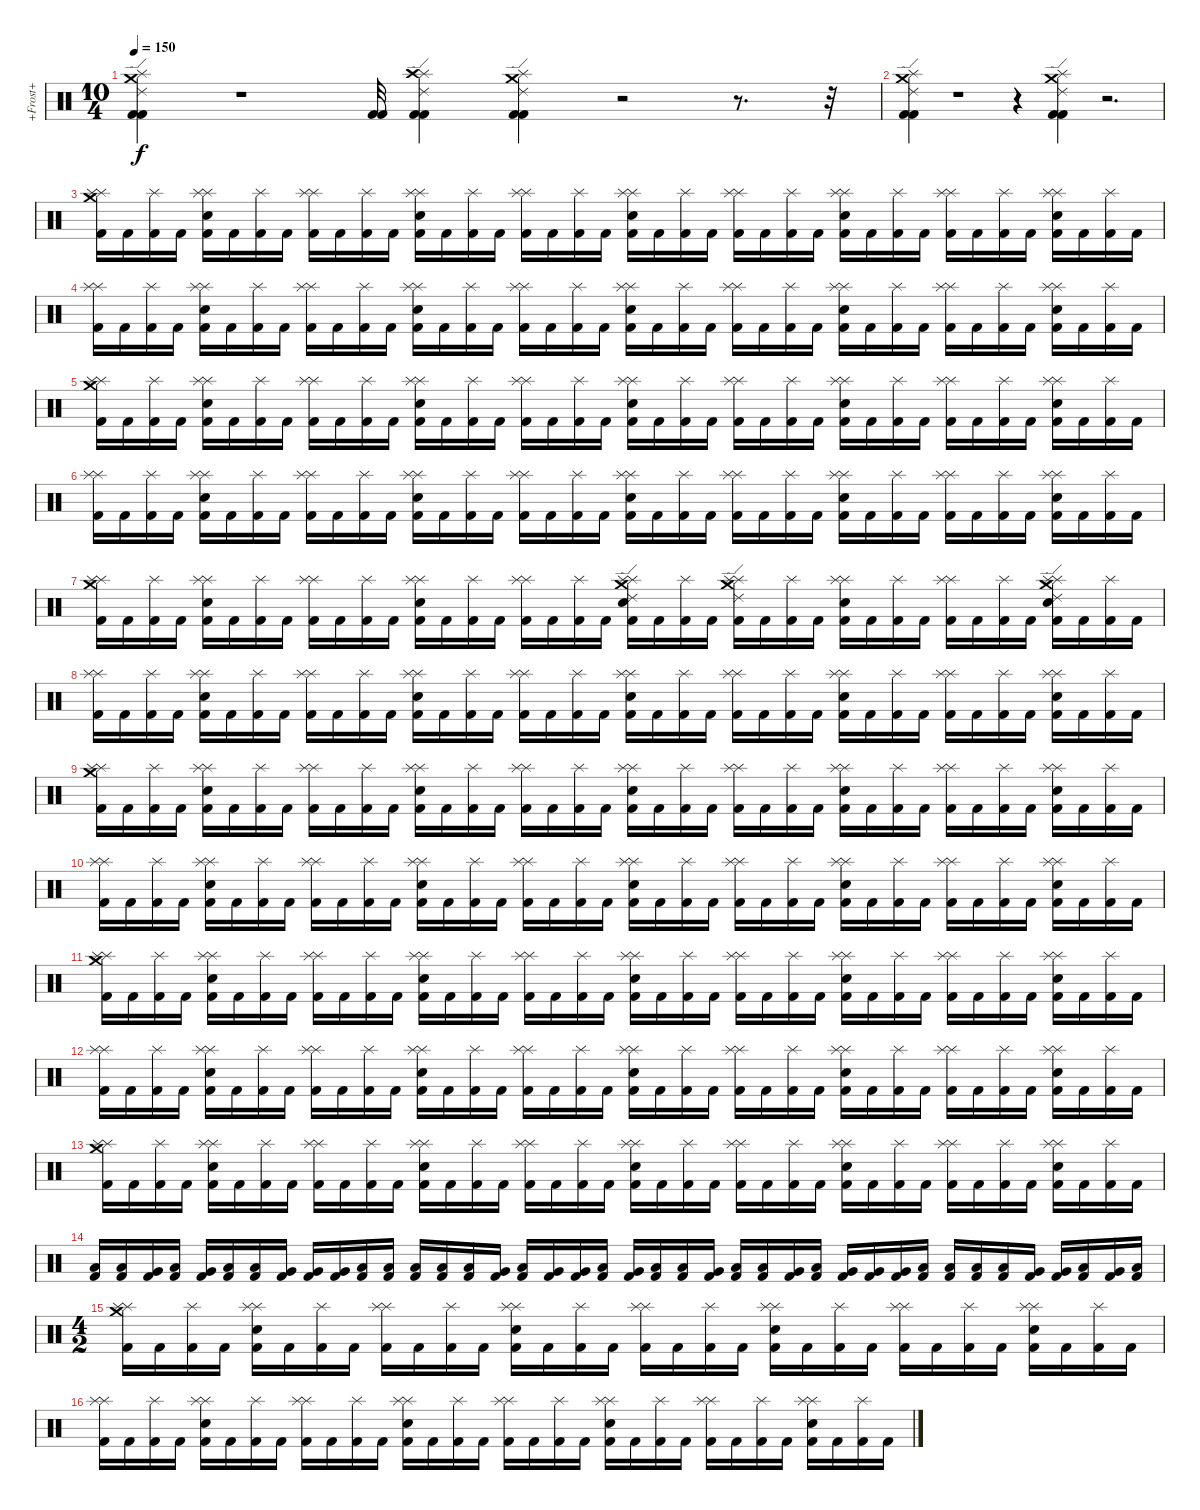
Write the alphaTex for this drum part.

\track ("+Frost+" "+Frost+") {instrument percussion}
\staff {score}
\articulation defaults
\ts (10 4)
\tempo 150
\clef neutral
\ks c
("Kick (hit) 2" "Kick (hit) 2" "Ride (edge) 2" "Crash medium (hit)" "Splash (hit)").4{dy f} r.1 ("Kick (hit) 2" "Kick (hit) 2").32 ("Kick (hit) 2" "Kick (hit) 2" "Splash (hit)" "Crash high (hit)" "Ride (edge) 2").4 ("Kick (hit) 2" "Kick (hit) 2" "Splash (hit)" "Crash medium (hit)" "Ride (edge) 2").4 r.2 r.8{d} r.32 |
("Kick (hit) 2" "Kick (hit) 2" "Ride (edge) 2" "Crash medium (hit)" "Splash (hit)").4 r.1 r.4 ("Kick (hit) 2" "Kick (hit) 2" "Ride (edge) 2" "Crash medium (hit)" "Splash (hit)").4 r.2{d} |
("Kick (hit) 2" "Splash (hit)" "Splash (hit)" "Crash medium (hit)").16 "Kick (hit) 2".16 ("Kick (hit) 2" "Splash (hit)").16 "Kick (hit) 2".16 ("Kick (hit) 2" "Splash (hit)" "Splash (hit)" "Electric Snare (hit)").16 "Kick (hit) 2".16 ("Kick (hit) 2" "Splash (hit)").16 "Kick (hit) 2".16 ("Kick (hit) 2" "Splash (hit)" "Splash (hit)").16 "Kick (hit) 2".16 ("Kick (hit) 2" "Splash (hit)").16 "Kick (hit) 2".16 ("Kick (hit) 2" "Splash (hit)" "Splash (hit)" "Electric Snare (hit)").16 "Kick (hit) 2".16 ("Kick (hit) 2" "Splash (hit)").16 "Kick (hit) 2".16 ("Kick (hit) 2" "Splash (hit)" "Splash (hit)").16 "Kick (hit) 2".16 ("Kick (hit) 2" "Splash (hit)").16 "Kick (hit) 2".16 ("Kick (hit) 2" "Splash (hit)" "Splash (hit)" "Electric Snare (hit)").16 "Kick (hit) 2".16 ("Kick (hit) 2" "Splash (hit)").16 "Kick (hit) 2".16 ("Kick (hit) 2" "Splash (hit)" "Splash (hit)").16 "Kick (hit) 2".16 ("Kick (hit) 2" "Splash (hit)").16 "Kick (hit) 2".16 ("Kick (hit) 2" "Splash (hit)" "Splash (hit)" "Electric Snare (hit)").16 "Kick (hit) 2".16 ("Kick (hit) 2" "Splash (hit)").16 "Kick (hit) 2".16 ("Kick (hit) 2" "Splash (hit)" "Splash (hit)").16 "Kick (hit) 2".16 ("Kick (hit) 2" "Splash (hit)").16 "Kick (hit) 2".16 ("Kick (hit) 2" "Splash (hit)" "Splash (hit)" "Electric Snare (hit)").16 "Kick (hit) 2".16 ("Kick (hit) 2" "Splash (hit)").16 "Kick (hit) 2".16 |
("Kick (hit) 2" "Splash (hit)" "Splash (hit)").16 "Kick (hit) 2".16 ("Kick (hit) 2" "Splash (hit)").16 "Kick (hit) 2".16 ("Kick (hit) 2" "Splash (hit)" "Splash (hit)" "Electric Snare (hit)").16 "Kick (hit) 2".16 ("Kick (hit) 2" "Splash (hit)").16 "Kick (hit) 2".16 ("Kick (hit) 2" "Splash (hit)" "Splash (hit)").16 "Kick (hit) 2".16 ("Kick (hit) 2" "Splash (hit)").16 "Kick (hit) 2".16 ("Kick (hit) 2" "Splash (hit)" "Splash (hit)" "Electric Snare (hit)").16 "Kick (hit) 2".16 ("Kick (hit) 2" "Splash (hit)").16 "Kick (hit) 2".16 ("Kick (hit) 2" "Splash (hit)" "Splash (hit)").16 "Kick (hit) 2".16 ("Kick (hit) 2" "Splash (hit)").16 "Kick (hit) 2".16 ("Kick (hit) 2" "Splash (hit)" "Splash (hit)" "Electric Snare (hit)").16 "Kick (hit) 2".16 ("Kick (hit) 2" "Splash (hit)").16 "Kick (hit) 2".16 ("Kick (hit) 2" "Splash (hit)" "Splash (hit)").16 "Kick (hit) 2".16 ("Kick (hit) 2" "Splash (hit)").16 "Kick (hit) 2".16 ("Kick (hit) 2" "Splash (hit)" "Splash (hit)" "Electric Snare (hit)").16 "Kick (hit) 2".16 ("Kick (hit) 2" "Splash (hit)").16 "Kick (hit) 2".16 ("Kick (hit) 2" "Splash (hit)" "Splash (hit)").16 "Kick (hit) 2".16 ("Kick (hit) 2" "Splash (hit)").16 "Kick (hit) 2".16 ("Kick (hit) 2" "Splash (hit)" "Splash (hit)" "Electric Snare (hit)").16 "Kick (hit) 2".16 ("Kick (hit) 2" "Splash (hit)").16 "Kick (hit) 2".16 |
("Kick (hit) 2" "Splash (hit)" "Splash (hit)" "Crash medium (hit)").16 "Kick (hit) 2".16 ("Kick (hit) 2" "Splash (hit)").16 "Kick (hit) 2".16 ("Kick (hit) 2" "Splash (hit)" "Splash (hit)" "Electric Snare (hit)").16 "Kick (hit) 2".16 ("Kick (hit) 2" "Splash (hit)").16 "Kick (hit) 2".16 ("Kick (hit) 2" "Splash (hit)" "Splash (hit)").16 "Kick (hit) 2".16 ("Kick (hit) 2" "Splash (hit)").16 "Kick (hit) 2".16 ("Kick (hit) 2" "Splash (hit)" "Splash (hit)" "Electric Snare (hit)").16 "Kick (hit) 2".16 ("Kick (hit) 2" "Splash (hit)").16 "Kick (hit) 2".16 ("Kick (hit) 2" "Splash (hit)" "Splash (hit)").16 "Kick (hit) 2".16 ("Kick (hit) 2" "Splash (hit)").16 "Kick (hit) 2".16 ("Kick (hit) 2" "Splash (hit)" "Splash (hit)" "Electric Snare (hit)").16 "Kick (hit) 2".16 ("Kick (hit) 2" "Splash (hit)").16 "Kick (hit) 2".16 ("Kick (hit) 2" "Splash (hit)" "Splash (hit)").16 "Kick (hit) 2".16 ("Kick (hit) 2" "Splash (hit)").16 "Kick (hit) 2".16 ("Kick (hit) 2" "Splash (hit)" "Splash (hit)" "Electric Snare (hit)").16 "Kick (hit) 2".16 ("Kick (hit) 2" "Splash (hit)").16 "Kick (hit) 2".16 ("Kick (hit) 2" "Splash (hit)" "Splash (hit)").16 "Kick (hit) 2".16 ("Kick (hit) 2" "Splash (hit)").16 "Kick (hit) 2".16 ("Kick (hit) 2" "Splash (hit)" "Splash (hit)" "Electric Snare (hit)").16 "Kick (hit) 2".16 ("Kick (hit) 2" "Splash (hit)").16 "Kick (hit) 2".16 |
("Kick (hit) 2" "Splash (hit)" "Splash (hit)").16 "Kick (hit) 2".16 ("Kick (hit) 2" "Splash (hit)").16 "Kick (hit) 2".16 ("Kick (hit) 2" "Splash (hit)" "Splash (hit)" "Electric Snare (hit)").16 "Kick (hit) 2".16 ("Kick (hit) 2" "Splash (hit)").16 "Kick (hit) 2".16 ("Kick (hit) 2" "Splash (hit)" "Splash (hit)").16 "Kick (hit) 2".16 ("Kick (hit) 2" "Splash (hit)").16 "Kick (hit) 2".16 ("Kick (hit) 2" "Splash (hit)" "Splash (hit)" "Electric Snare (hit)").16 "Kick (hit) 2".16 ("Kick (hit) 2" "Splash (hit)").16 "Kick (hit) 2".16 ("Kick (hit) 2" "Splash (hit)" "Splash (hit)").16 "Kick (hit) 2".16 ("Kick (hit) 2" "Splash (hit)").16 "Kick (hit) 2".16 ("Kick (hit) 2" "Splash (hit)" "Splash (hit)" "Electric Snare (hit)").16 "Kick (hit) 2".16 ("Kick (hit) 2" "Splash (hit)").16 "Kick (hit) 2".16 ("Kick (hit) 2" "Splash (hit)" "Splash (hit)").16 "Kick (hit) 2".16 ("Kick (hit) 2" "Splash (hit)").16 "Kick (hit) 2".16 ("Kick (hit) 2" "Splash (hit)" "Splash (hit)" "Electric Snare (hit)").16 "Kick (hit) 2".16 ("Kick (hit) 2" "Splash (hit)").16 "Kick (hit) 2".16 ("Kick (hit) 2" "Splash (hit)" "Splash (hit)").16 "Kick (hit) 2".16 ("Kick (hit) 2" "Splash (hit)").16 "Kick (hit) 2".16 ("Kick (hit) 2" "Splash (hit)" "Splash (hit)" "Electric Snare (hit)").16 "Kick (hit) 2".16 ("Kick (hit) 2" "Splash (hit)").16 "Kick (hit) 2".16 |
("Kick (hit) 2" "Splash (hit)" "Splash (hit)" "Crash medium (hit)").16 "Kick (hit) 2".16 ("Kick (hit) 2" "Splash (hit)").16 "Kick (hit) 2".16 ("Kick (hit) 2" "Splash (hit)" "Splash (hit)" "Electric Snare (hit)").16 "Kick (hit) 2".16 ("Kick (hit) 2" "Splash (hit)").16 "Kick (hit) 2".16 ("Kick (hit) 2" "Splash (hit)" "Splash (hit)").16 "Kick (hit) 2".16 ("Kick (hit) 2" "Splash (hit)").16 "Kick (hit) 2".16 ("Kick (hit) 2" "Splash (hit)" "Splash (hit)" "Electric Snare (hit)").16 "Kick (hit) 2".16 ("Kick (hit) 2" "Splash (hit)").16 "Kick (hit) 2".16 ("Kick (hit) 2" "Splash (hit)" "Splash (hit)").16 "Kick (hit) 2".16 ("Kick (hit) 2" "Splash (hit)").16 "Kick (hit) 2".16 ("Kick (hit) 2" "Splash (hit)" "Splash (hit)" "Crash medium (hit)" "Electric Snare (hit)" "Ride (edge) 2").16 "Kick (hit) 2".16 ("Kick (hit) 2" "Splash (hit)").16 "Kick (hit) 2".16 ("Kick (hit) 2" "Splash (hit)" "Splash (hit)" "Crash medium (hit)" "Ride (edge) 2").16 "Kick (hit) 2".16 ("Kick (hit) 2" "Splash (hit)").16 "Kick (hit) 2".16 ("Kick (hit) 2" "Splash (hit)" "Splash (hit)" "Electric Snare (hit)").16 "Kick (hit) 2".16 ("Kick (hit) 2" "Splash (hit)").16 "Kick (hit) 2".16 ("Kick (hit) 2" "Splash (hit)" "Splash (hit)").16 "Kick (hit) 2".16 ("Kick (hit) 2" "Splash (hit)").16 "Kick (hit) 2".16 ("Kick (hit) 2" "Splash (hit)" "Splash (hit)" "Crash medium (hit)" "Electric Snare (hit)" "Ride (edge) 2").16 "Kick (hit) 2".16 ("Kick (hit) 2" "Splash (hit)").16 "Kick (hit) 2".16 |
("Kick (hit) 2" "Splash (hit)" "Splash (hit)").16 "Kick (hit) 2".16 ("Kick (hit) 2" "Splash (hit)").16 "Kick (hit) 2".16 ("Kick (hit) 2" "Splash (hit)" "Splash (hit)" "Electric Snare (hit)").16 "Kick (hit) 2".16 ("Kick (hit) 2" "Splash (hit)").16 "Kick (hit) 2".16 ("Kick (hit) 2" "Splash (hit)" "Splash (hit)").16 "Kick (hit) 2".16 ("Kick (hit) 2" "Splash (hit)").16 "Kick (hit) 2".16 ("Kick (hit) 2" "Splash (hit)" "Splash (hit)" "Electric Snare (hit)").16 "Kick (hit) 2".16 ("Kick (hit) 2" "Splash (hit)").16 "Kick (hit) 2".16 ("Kick (hit) 2" "Splash (hit)" "Splash (hit)").16 "Kick (hit) 2".16 ("Kick (hit) 2" "Splash (hit)").16 "Kick (hit) 2".16 ("Kick (hit) 2" "Splash (hit)" "Splash (hit)" "Electric Snare (hit)").16 "Kick (hit) 2".16 ("Kick (hit) 2" "Splash (hit)").16 "Kick (hit) 2".16 ("Kick (hit) 2" "Splash (hit)" "Splash (hit)").16 "Kick (hit) 2".16 ("Kick (hit) 2" "Splash (hit)").16 "Kick (hit) 2".16 ("Kick (hit) 2" "Splash (hit)" "Splash (hit)" "Electric Snare (hit)").16 "Kick (hit) 2".16 ("Kick (hit) 2" "Splash (hit)").16 "Kick (hit) 2".16 ("Kick (hit) 2" "Splash (hit)" "Splash (hit)").16 "Kick (hit) 2".16 ("Kick (hit) 2" "Splash (hit)").16 "Kick (hit) 2".16 ("Kick (hit) 2" "Splash (hit)" "Splash (hit)" "Electric Snare (hit)").16 "Kick (hit) 2".16 ("Kick (hit) 2" "Splash (hit)").16 "Kick (hit) 2".16 |
("Kick (hit) 2" "Splash (hit)" "Splash (hit)" "Crash medium (hit)").16 "Kick (hit) 2".16 ("Kick (hit) 2" "Splash (hit)").16 "Kick (hit) 2".16 ("Kick (hit) 2" "Splash (hit)" "Splash (hit)" "Electric Snare (hit)").16 "Kick (hit) 2".16 ("Kick (hit) 2" "Splash (hit)").16 "Kick (hit) 2".16 ("Kick (hit) 2" "Splash (hit)" "Splash (hit)").16 "Kick (hit) 2".16 ("Kick (hit) 2" "Splash (hit)").16 "Kick (hit) 2".16 ("Kick (hit) 2" "Splash (hit)" "Splash (hit)" "Electric Snare (hit)").16 "Kick (hit) 2".16 ("Kick (hit) 2" "Splash (hit)").16 "Kick (hit) 2".16 ("Kick (hit) 2" "Splash (hit)" "Splash (hit)").16 "Kick (hit) 2".16 ("Kick (hit) 2" "Splash (hit)").16 "Kick (hit) 2".16 ("Kick (hit) 2" "Splash (hit)" "Splash (hit)" "Electric Snare (hit)").16 "Kick (hit) 2".16 ("Kick (hit) 2" "Splash (hit)").16 "Kick (hit) 2".16 ("Kick (hit) 2" "Splash (hit)" "Splash (hit)").16 "Kick (hit) 2".16 ("Kick (hit) 2" "Splash (hit)").16 "Kick (hit) 2".16 ("Kick (hit) 2" "Splash (hit)" "Splash (hit)" "Electric Snare (hit)").16 "Kick (hit) 2".16 ("Kick (hit) 2" "Splash (hit)").16 "Kick (hit) 2".16 ("Kick (hit) 2" "Splash (hit)" "Splash (hit)").16 "Kick (hit) 2".16 ("Kick (hit) 2" "Splash (hit)").16 "Kick (hit) 2".16 ("Kick (hit) 2" "Splash (hit)" "Splash (hit)" "Electric Snare (hit)").16 "Kick (hit) 2".16 ("Kick (hit) 2" "Splash (hit)").16 "Kick (hit) 2".16 |
("Kick (hit) 2" "Splash (hit)" "Splash (hit)").16 "Kick (hit) 2".16 ("Kick (hit) 2" "Splash (hit)").16 "Kick (hit) 2".16 ("Kick (hit) 2" "Splash (hit)" "Splash (hit)" "Electric Snare (hit)").16 "Kick (hit) 2".16 ("Kick (hit) 2" "Splash (hit)").16 "Kick (hit) 2".16 ("Kick (hit) 2" "Splash (hit)" "Splash (hit)").16 "Kick (hit) 2".16 ("Kick (hit) 2" "Splash (hit)").16 "Kick (hit) 2".16 ("Kick (hit) 2" "Splash (hit)" "Splash (hit)" "Electric Snare (hit)").16 "Kick (hit) 2".16 ("Kick (hit) 2" "Splash (hit)").16 "Kick (hit) 2".16 ("Kick (hit) 2" "Splash (hit)" "Splash (hit)").16 "Kick (hit) 2".16 ("Kick (hit) 2" "Splash (hit)").16 "Kick (hit) 2".16 ("Kick (hit) 2" "Splash (hit)" "Splash (hit)" "Electric Snare (hit)").16 "Kick (hit) 2".16 ("Kick (hit) 2" "Splash (hit)").16 "Kick (hit) 2".16 ("Kick (hit) 2" "Splash (hit)" "Splash (hit)").16 "Kick (hit) 2".16 ("Kick (hit) 2" "Splash (hit)").16 "Kick (hit) 2".16 ("Kick (hit) 2" "Splash (hit)" "Splash (hit)" "Electric Snare (hit)").16 "Kick (hit) 2".16 ("Kick (hit) 2" "Splash (hit)").16 "Kick (hit) 2".16 ("Kick (hit) 2" "Splash (hit)" "Splash (hit)").16 "Kick (hit) 2".16 ("Kick (hit) 2" "Splash (hit)").16 "Kick (hit) 2".16 ("Kick (hit) 2" "Splash (hit)" "Splash (hit)" "Electric Snare (hit)").16 "Kick (hit) 2".16 ("Kick (hit) 2" "Splash (hit)").16 "Kick (hit) 2".16 |
("Kick (hit) 2" "Splash (hit)" "Splash (hit)" "Crash medium (hit)").16 "Kick (hit) 2".16 ("Kick (hit) 2" "Splash (hit)").16 "Kick (hit) 2".16 ("Kick (hit) 2" "Splash (hit)" "Splash (hit)" "Electric Snare (hit)").16 "Kick (hit) 2".16 ("Kick (hit) 2" "Splash (hit)").16 "Kick (hit) 2".16 ("Kick (hit) 2" "Splash (hit)" "Splash (hit)").16 "Kick (hit) 2".16 ("Kick (hit) 2" "Splash (hit)").16 "Kick (hit) 2".16 ("Kick (hit) 2" "Splash (hit)" "Splash (hit)" "Electric Snare (hit)").16 "Kick (hit) 2".16 ("Kick (hit) 2" "Splash (hit)").16 "Kick (hit) 2".16 ("Kick (hit) 2" "Splash (hit)" "Splash (hit)").16 "Kick (hit) 2".16 ("Kick (hit) 2" "Splash (hit)").16 "Kick (hit) 2".16 ("Kick (hit) 2" "Splash (hit)" "Splash (hit)" "Electric Snare (hit)").16 "Kick (hit) 2".16 ("Kick (hit) 2" "Splash (hit)").16 "Kick (hit) 2".16 ("Kick (hit) 2" "Splash (hit)" "Splash (hit)").16 "Kick (hit) 2".16 ("Kick (hit) 2" "Splash (hit)").16 "Kick (hit) 2".16 ("Kick (hit) 2" "Splash (hit)" "Splash (hit)" "Electric Snare (hit)").16 "Kick (hit) 2".16 ("Kick (hit) 2" "Splash (hit)").16 "Kick (hit) 2".16 ("Kick (hit) 2" "Splash (hit)" "Splash (hit)").16 "Kick (hit) 2".16 ("Kick (hit) 2" "Splash (hit)").16 "Kick (hit) 2".16 ("Kick (hit) 2" "Splash (hit)" "Splash (hit)" "Electric Snare (hit)").16 "Kick (hit) 2".16 ("Kick (hit) 2" "Splash (hit)").16 "Kick (hit) 2".16 |
("Kick (hit) 2" "Splash (hit)" "Splash (hit)").16 "Kick (hit) 2".16 ("Kick (hit) 2" "Splash (hit)").16 "Kick (hit) 2".16 ("Kick (hit) 2" "Splash (hit)" "Splash (hit)" "Electric Snare (hit)").16 "Kick (hit) 2".16 ("Kick (hit) 2" "Splash (hit)").16 "Kick (hit) 2".16 ("Kick (hit) 2" "Splash (hit)" "Splash (hit)").16 "Kick (hit) 2".16 ("Kick (hit) 2" "Splash (hit)").16 "Kick (hit) 2".16 ("Kick (hit) 2" "Splash (hit)" "Splash (hit)" "Electric Snare (hit)").16 "Kick (hit) 2".16 ("Kick (hit) 2" "Splash (hit)").16 "Kick (hit) 2".16 ("Kick (hit) 2" "Splash (hit)" "Splash (hit)").16 "Kick (hit) 2".16 ("Kick (hit) 2" "Splash (hit)").16 "Kick (hit) 2".16 ("Kick (hit) 2" "Splash (hit)" "Splash (hit)" "Electric Snare (hit)").16 "Kick (hit) 2".16 ("Kick (hit) 2" "Splash (hit)").16 "Kick (hit) 2".16 ("Kick (hit) 2" "Splash (hit)" "Splash (hit)").16 "Kick (hit) 2".16 ("Kick (hit) 2" "Splash (hit)").16 "Kick (hit) 2".16 ("Kick (hit) 2" "Splash (hit)" "Splash (hit)" "Electric Snare (hit)").16 "Kick (hit) 2".16 ("Kick (hit) 2" "Splash (hit)").16 "Kick (hit) 2".16 ("Kick (hit) 2" "Splash (hit)" "Splash (hit)").16 "Kick (hit) 2".16 ("Kick (hit) 2" "Splash (hit)").16 "Kick (hit) 2".16 ("Kick (hit) 2" "Splash (hit)" "Splash (hit)" "Electric Snare (hit)").16 "Kick (hit) 2".16 ("Kick (hit) 2" "Splash (hit)").16 "Kick (hit) 2".16 |
("Kick (hit) 2" "Splash (hit)" "Splash (hit)" "Crash medium (hit)").16 "Kick (hit) 2".16 ("Kick (hit) 2" "Splash (hit)").16 "Kick (hit) 2".16 ("Kick (hit) 2" "Splash (hit)" "Splash (hit)" "Electric Snare (hit)").16 "Kick (hit) 2".16 ("Kick (hit) 2" "Splash (hit)").16 "Kick (hit) 2".16 ("Kick (hit) 2" "Splash (hit)" "Splash (hit)").16 "Kick (hit) 2".16 ("Kick (hit) 2" "Splash (hit)").16 "Kick (hit) 2".16 ("Kick (hit) 2" "Splash (hit)" "Splash (hit)" "Electric Snare (hit)").16 "Kick (hit) 2".16 ("Kick (hit) 2" "Splash (hit)").16 "Kick (hit) 2".16 ("Kick (hit) 2" "Splash (hit)" "Splash (hit)").16 "Kick (hit) 2".16 ("Kick (hit) 2" "Splash (hit)").16 "Kick (hit) 2".16 ("Kick (hit) 2" "Splash (hit)" "Splash (hit)" "Electric Snare (hit)").16 "Kick (hit) 2".16 ("Kick (hit) 2" "Splash (hit)").16 "Kick (hit) 2".16 ("Kick (hit) 2" "Splash (hit)" "Splash (hit)").16 "Kick (hit) 2".16 ("Kick (hit) 2" "Splash (hit)").16 "Kick (hit) 2".16 ("Kick (hit) 2" "Splash (hit)" "Splash (hit)" "Electric Snare (hit)").16 "Kick (hit) 2".16 ("Kick (hit) 2" "Splash (hit)").16 "Kick (hit) 2".16 ("Kick (hit) 2" "Splash (hit)" "Splash (hit)").16 "Kick (hit) 2".16 ("Kick (hit) 2" "Splash (hit)").16 "Kick (hit) 2".16 ("Kick (hit) 2" "Splash (hit)" "Splash (hit)" "Electric Snare (hit)").16 "Kick (hit) 2".16 ("Kick (hit) 2" "Splash (hit)").16 "Kick (hit) 2".16 |
("Kick (hit) 2" "Low Tom (hit)").16 ("Kick (hit) 2" "Low Tom (hit)").16 ("Kick (hit) 2" "Very Low Tom (hit)").16 ("Kick (hit) 2" "Low Tom (hit)").16 ("Kick (hit) 2" "Very Low Tom (hit)").16 ("Kick (hit) 2" "Low Tom (hit)").16 ("Kick (hit) 2" "Low Tom (hit)").16 ("Kick (hit) 2" "Very Low Tom (hit)").16 ("Kick (hit) 2" "Very Low Tom (hit)").16 ("Kick (hit) 2" "Very Low Tom (hit)").16 ("Kick (hit) 2" "Low Tom (hit)").16 ("Kick (hit) 2" "Low Tom (hit)").16 ("Kick (hit) 2" "Low Tom (hit)").16 ("Kick (hit) 2" "Low Tom (hit)").16 ("Kick (hit) 2" "Low Tom (hit)").16 ("Kick (hit) 2" "Very Low Tom (hit)").16 ("Kick (hit) 2" "Low Tom (hit)").16 ("Kick (hit) 2" "Very Low Tom (hit)").16 ("Kick (hit) 2" "Very Low Tom (hit)").16 ("Kick (hit) 2" "Low Tom (hit)").16 ("Kick (hit) 2" "Very Low Tom (hit)").16 ("Kick (hit) 2" "Low Floor Tom (hit)").16 ("Kick (hit) 2" "Low Floor Tom (hit)").16 ("Kick (hit) 2" "Very Low Tom (hit)").16 ("Kick (hit) 2" "Low Floor Tom (hit)").16 ("Kick (hit) 2" "Low Floor Tom (hit)").16 ("Kick (hit) 2" "Very Low Tom (hit)").16 ("Kick (hit) 2" "Low Floor Tom (hit)").16 ("Kick (hit) 2" "Very Low Tom (hit)").16 ("Kick (hit) 2" "Very Low Tom (hit)").16 ("Kick (hit) 2" "Very Low Tom (hit)").16 ("Kick (hit) 2" "Low Floor Tom (hit)").16 ("Kick (hit) 2" "Low Floor Tom (hit)").16 ("Kick (hit) 2" "Low Floor Tom (hit)").16 ("Kick (hit) 2" "Low Floor Tom (hit)").16 ("Kick (hit) 2" "Very Low Tom (hit)").16 ("Kick (hit) 2" "Very Low Tom (hit)").16 ("Kick (hit) 2" "Low Floor Tom (hit)").16 ("Kick (hit) 2" "Very Low Tom (hit)").16 ("Kick (hit) 2" "Low Floor Tom (hit)").16 |
\ts (4 2)
("Kick (hit) 2" "Splash (hit)" "Splash (hit)" "Crash medium (hit)").16 "Kick (hit) 2".16 ("Kick (hit) 2" "Splash (hit)").16 "Kick (hit) 2".16 ("Kick (hit) 2" "Splash (hit)" "Splash (hit)" "Electric Snare (hit)").16 "Kick (hit) 2".16 ("Kick (hit) 2" "Splash (hit)").16 "Kick (hit) 2".16 ("Kick (hit) 2" "Splash (hit)" "Splash (hit)").16 "Kick (hit) 2".16 ("Kick (hit) 2" "Splash (hit)").16 "Kick (hit) 2".16 ("Kick (hit) 2" "Splash (hit)" "Splash (hit)" "Electric Snare (hit)").16 "Kick (hit) 2".16 ("Kick (hit) 2" "Splash (hit)").16 "Kick (hit) 2".16 ("Kick (hit) 2" "Splash (hit)" "Splash (hit)").16 "Kick (hit) 2".16 ("Kick (hit) 2" "Splash (hit)").16 "Kick (hit) 2".16 ("Kick (hit) 2" "Splash (hit)" "Splash (hit)" "Electric Snare (hit)").16 "Kick (hit) 2".16 ("Kick (hit) 2" "Splash (hit)").16 "Kick (hit) 2".16 ("Kick (hit) 2" "Splash (hit)" "Splash (hit)").16 "Kick (hit) 2".16 ("Kick (hit) 2" "Splash (hit)").16 "Kick (hit) 2".16 ("Kick (hit) 2" "Splash (hit)" "Splash (hit)" "Electric Snare (hit)").16 "Kick (hit) 2".16 ("Kick (hit) 2" "Splash (hit)").16 "Kick (hit) 2".16 |
("Kick (hit) 2" "Splash (hit)" "Splash (hit)").16 "Kick (hit) 2".16 ("Kick (hit) 2" "Splash (hit)").16 "Kick (hit) 2".16 ("Kick (hit) 2" "Splash (hit)" "Splash (hit)" "Electric Snare (hit)").16 "Kick (hit) 2".16 ("Kick (hit) 2" "Splash (hit)").16 "Kick (hit) 2".16 ("Kick (hit) 2" "Splash (hit)" "Splash (hit)").16 "Kick (hit) 2".16 ("Kick (hit) 2" "Splash (hit)").16 "Kick (hit) 2".16 ("Kick (hit) 2" "Splash (hit)" "Splash (hit)" "Electric Snare (hit)").16 "Kick (hit) 2".16 ("Kick (hit) 2" "Splash (hit)").16 "Kick (hit) 2".16 ("Kick (hit) 2" "Splash (hit)" "Splash (hit)").16 "Kick (hit) 2".16 ("Kick (hit) 2" "Splash (hit)").16 "Kick (hit) 2".16 ("Kick (hit) 2" "Splash (hit)" "Splash (hit)" "Electric Snare (hit)").16 "Kick (hit) 2".16 ("Kick (hit) 2" "Splash (hit)").16 "Kick (hit) 2".16 ("Kick (hit) 2" "Splash (hit)" "Splash (hit)").16 "Kick (hit) 2".16 ("Kick (hit) 2" "Splash (hit)").16 "Kick (hit) 2".16 ("Kick (hit) 2" "Splash (hit)" "Splash (hit)" "Electric Snare (hit)").16 "Kick (hit) 2".16 ("Kick (hit) 2" "Splash (hit)").16 "Kick (hit) 2".16
